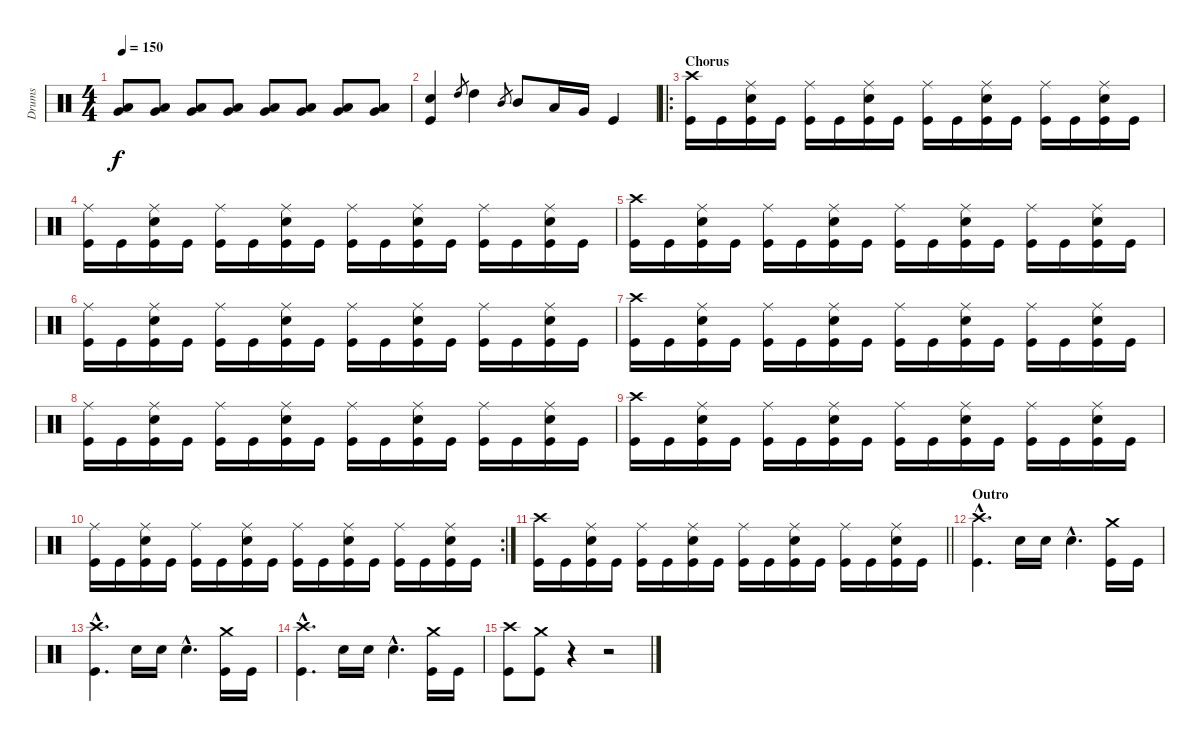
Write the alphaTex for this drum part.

\track ("Drums" "Drums") {instrument percussion}
\staff {score}
\articulation defaults
\ts (4 4)
\tempo 150
\clef neutral
\ks c
("Very Low Tom (hit)" "Low Tom (hit)").8{dy f} ("Very Low Tom (hit)" "Low Tom (hit)").8 ("Very Low Tom (hit)" "Low Tom (hit)").8 ("Very Low Tom (hit)" "Low Tom (hit)").8 ("Very Low Tom (hit)" "Low Tom (hit)").8 ("Very Low Tom (hit)" "Low Tom (hit)").8 ("Very Low Tom (hit)" "Low Tom (hit)").8 ("Very Low Tom (hit)" "Low Tom (hit)").8 |
("Snare (hit) 2" "Kick (hit)").4 "High Tom (hit)".8{gr} "High Tom (hit)".4 "Mid Tom (hit)".8{gr} "Mid Tom (hit)".8 "Low Tom (hit)".16 "Very Low Tom (hit)".16 "Kick (hit)".4 |
\ro
\section ("" "Chorus")
("Crash high (hit)" "Kick (hit)").16 "Kick (hit)".16 ("Ride (middle)" "Snare (hit) 2" "Kick (hit)").16 "Kick (hit)".16 ("Ride (middle)" "Kick (hit)").16 "Kick (hit)".16 ("Ride (middle)" "Snare (hit) 2" "Kick (hit)").16 "Kick (hit)".16 ("Ride (middle)" "Kick (hit)").16 "Kick (hit)".16 ("Ride (middle)" "Snare (hit) 2" "Kick (hit)").16 "Kick (hit)".16 ("Ride (middle)" "Kick (hit)").16 "Kick (hit)".16 ("Ride (middle)" "Snare (hit) 2" "Kick (hit)").16 "Kick (hit)".16 |
("Ride (middle)" "Kick (hit)").16 "Kick (hit)".16 ("Ride (middle)" "Snare (hit) 2" "Kick (hit)").16 "Kick (hit)".16 ("Ride (middle)" "Kick (hit)").16 "Kick (hit)".16 ("Ride (middle)" "Snare (hit) 2" "Kick (hit)").16 "Kick (hit)".16 ("Ride (middle)" "Kick (hit)").16 "Kick (hit)".16 ("Ride (middle)" "Snare (hit) 2" "Kick (hit)").16 "Kick (hit)".16 ("Ride (middle)" "Kick (hit)").16 "Kick (hit)".16 ("Ride (middle)" "Snare (hit) 2" "Kick (hit)").16 "Kick (hit)".16 |
("Crash high (hit)" "Kick (hit)").16 "Kick (hit)".16 ("Ride (middle)" "Snare (hit) 2" "Kick (hit)").16 "Kick (hit)".16 ("Ride (middle)" "Kick (hit)").16 "Kick (hit)".16 ("Ride (middle)" "Snare (hit) 2" "Kick (hit)").16 "Kick (hit)".16 ("Ride (middle)" "Kick (hit)").16 "Kick (hit)".16 ("Ride (middle)" "Snare (hit) 2" "Kick (hit)").16 "Kick (hit)".16 ("Ride (middle)" "Kick (hit)").16 "Kick (hit)".16 ("Ride (middle)" "Snare (hit) 2" "Kick (hit)").16 "Kick (hit)".16 |
("Ride (middle)" "Kick (hit)").16 "Kick (hit)".16 ("Ride (middle)" "Snare (hit) 2" "Kick (hit)").16 "Kick (hit)".16 ("Ride (middle)" "Kick (hit)").16 "Kick (hit)".16 ("Ride (middle)" "Snare (hit) 2" "Kick (hit)").16 "Kick (hit)".16 ("Ride (middle)" "Kick (hit)").16 "Kick (hit)".16 ("Ride (middle)" "Snare (hit) 2" "Kick (hit)").16 "Kick (hit)".16 ("Ride (middle)" "Kick (hit)").16 "Kick (hit)".16 ("Ride (middle)" "Snare (hit) 2" "Kick (hit)").16 "Kick (hit)".16 |
("Crash high (hit)" "Kick (hit)").16 "Kick (hit)".16 ("Ride (middle)" "Snare (hit) 2" "Kick (hit)").16 "Kick (hit)".16 ("Ride (middle)" "Kick (hit)").16 "Kick (hit)".16 ("Ride (middle)" "Snare (hit) 2" "Kick (hit)").16 "Kick (hit)".16 ("Ride (middle)" "Kick (hit)").16 "Kick (hit)".16 ("Ride (middle)" "Snare (hit) 2" "Kick (hit)").16 "Kick (hit)".16 ("Ride (middle)" "Kick (hit)").16 "Kick (hit)".16 ("Ride (middle)" "Snare (hit) 2" "Kick (hit)").16 "Kick (hit)".16 |
("Ride (middle)" "Kick (hit)").16 "Kick (hit)".16 ("Ride (middle)" "Snare (hit) 2" "Kick (hit)").16 "Kick (hit)".16 ("Ride (middle)" "Kick (hit)").16 "Kick (hit)".16 ("Ride (middle)" "Snare (hit) 2" "Kick (hit)").16 "Kick (hit)".16 ("Ride (middle)" "Kick (hit)").16 "Kick (hit)".16 ("Ride (middle)" "Snare (hit) 2" "Kick (hit)").16 "Kick (hit)".16 ("Ride (middle)" "Kick (hit)").16 "Kick (hit)".16 ("Ride (middle)" "Snare (hit) 2" "Kick (hit)").16 "Kick (hit)".16 |
("Crash high (hit)" "Kick (hit)").16 "Kick (hit)".16 ("Ride (middle)" "Snare (hit) 2" "Kick (hit)").16 "Kick (hit)".16 ("Ride (middle)" "Kick (hit)").16 "Kick (hit)".16 ("Ride (middle)" "Snare (hit) 2" "Kick (hit)").16 "Kick (hit)".16 ("Ride (middle)" "Kick (hit)").16 "Kick (hit)".16 ("Ride (middle)" "Snare (hit) 2" "Kick (hit)").16 "Kick (hit)".16 ("Ride (middle)" "Kick (hit)").16 "Kick (hit)".16 ("Ride (middle)" "Snare (hit) 2" "Kick (hit)").16 "Kick (hit)".16 |
\rc 2
("Ride (middle)" "Kick (hit)").16 "Kick (hit)".16 ("Ride (middle)" "Snare (hit) 2" "Kick (hit)").16 "Kick (hit)".16 ("Ride (middle)" "Kick (hit)").16 "Kick (hit)".16 ("Ride (middle)" "Snare (hit) 2" "Kick (hit)").16 "Kick (hit)".16 ("Ride (middle)" "Kick (hit)").16 "Kick (hit)".16 ("Ride (middle)" "Snare (hit) 2" "Kick (hit)").16 "Kick (hit)".16 ("Ride (middle)" "Kick (hit)").16 "Kick (hit)".16 ("Ride (middle)" "Snare (hit) 2" "Kick (hit)").16 "Kick (hit)".16 |
\barLineRight lightlight
("Crash high (hit)" "Kick (hit)").16 "Kick (hit)".16 ("Ride (middle)" "Snare (hit) 2" "Kick (hit)").16 "Kick (hit)".16 ("Ride (middle)" "Kick (hit)").16 "Kick (hit)".16 ("Ride (middle)" "Snare (hit) 2" "Kick (hit)").16 "Kick (hit)".16 ("Ride (middle)" "Kick (hit)").16 "Kick (hit)".16 ("Ride (middle)" "Snare (hit) 2" "Kick (hit)").16 "Kick (hit)".16 ("Ride (middle)" "Kick (hit)").16 "Kick (hit)".16 ("Ride (middle)" "Snare (hit) 2" "Kick (hit)").16 "Kick (hit)".16 |
\section ("" "Outro")
("Crash high (hit)"{hac} "Kick (hit)"{hac}).4{d} "Snare (hit) 2".16 "Snare (hit) 2".16 "Snare (hit) 2"{hac}.4{d} ("Crash medium (hit)" "Kick (hit)").16 "Kick (hit)".16 |
("Crash high (hit)"{hac} "Kick (hit)"{hac}).4{d} "Snare (hit) 2".16 "Snare (hit) 2".16 "Snare (hit) 2"{hac}.4{d} ("Crash medium (hit)" "Kick (hit)").16 "Kick (hit)".16 |
("Crash high (hit)"{hac} "Kick (hit)"{hac}).4{d} "Snare (hit) 2".16 "Snare (hit) 2".16 "Snare (hit) 2"{hac}.4{d} ("Crash medium (hit)" "Kick (hit)").16 "Kick (hit)".16 |
("Crash high (hit)" "Kick (hit)").8 ("Crash medium (hit)" "Kick (hit)").8 r.4 r.2
